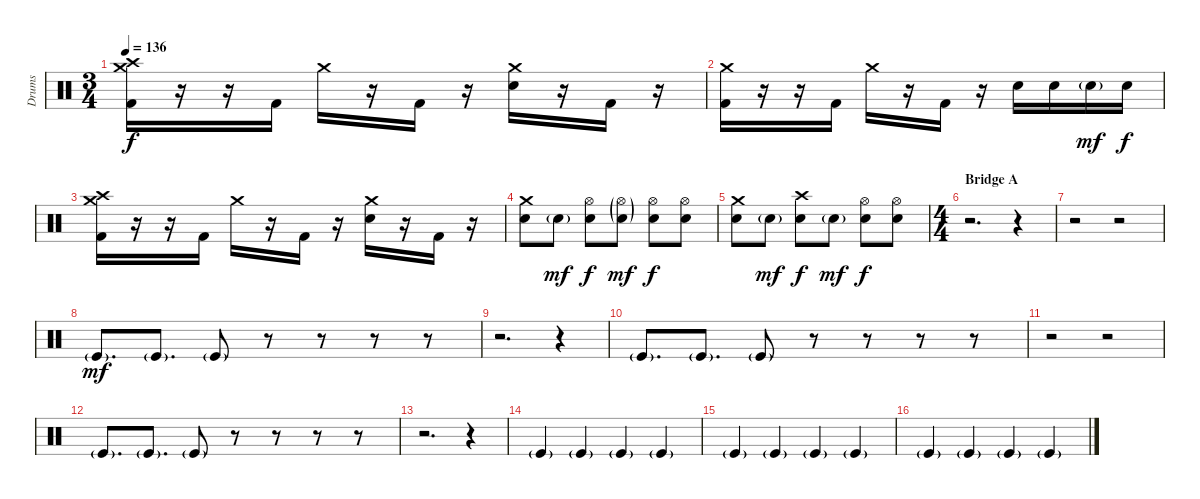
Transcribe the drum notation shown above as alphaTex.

\track ("Drums" "Drums") {instrument percussion}
\staff {score}
\articulation defaults
\ts (3 4)
\tempo 136
\clef neutral
\ks c
("Crash medium (hit)" "Crash high (hit)" "Kick (hit) 2").16{dy f} r.16 r.16 "Kick (hit) 2".16 "Crash medium (hit)".16 r.16 "Kick (hit) 2".16 r.16 ("Crash medium (hit)" "Electric Snare (hit)").16 r.16 "Kick (hit) 2".16 r.16 |
("Crash medium (hit)" "Kick (hit) 2").16 r.16 r.16 "Kick (hit) 2".16 "Crash medium (hit)".16 r.16 "Kick (hit) 2".16 r.16 "Electric Snare (hit)".16 "Electric Snare (hit)".16 "Snare (hit) 2"{g}.16{dy mf} "Electric Snare (hit)".16{dy f} |
("Crash medium (hit)" "Crash high (hit)" "Kick (hit) 2").16 r.16 r.16 "Kick (hit) 2".16 "Crash medium (hit)".16 r.16 "Kick (hit) 2".16 r.16 ("Crash medium (hit)" "Electric Snare (hit)").16 r.16 "Kick (hit) 2".16 r.16 |
("Crash medium (hit)" "Electric Snare (hit)").8 "Electric Snare (hit)"{g}.8{dy mf} ("Hi-Hat (open)" "Electric Snare (hit)").8{dy f} ("Hi-Hat (open)"{g} "Electric Snare (hit)"{g}).8{dy mf} ("Hi-Hat (open)" "Electric Snare (hit)").8{dy f} ("Hi-Hat (open)" "Electric Snare (hit)").8 |
("Crash medium (hit)" "Electric Snare (hit)").8 "Electric Snare (hit)"{g}.8{dy mf} ("Crash high (hit)" "Electric Snare (hit)").8{dy f} "Electric Snare (hit)"{g}.8{dy mf} ("Hi-Hat (open)" "Electric Snare (hit)").8{dy f} ("Hi-Hat (open)" "Electric Snare (hit)").8 |
\ts (4 4)
\section ("" "Bridge A")
r.2{d} r.4 |
r.2 r.2 |
"Kick (hit)"{g}.8{d dy mf} "Kick (hit)"{g}.8{d} "Kick (hit)"{g}.8 r.8 r.8 r.8 r.8 |
r.2{d} r.4 |
"Kick (hit)"{g}.8{d} "Kick (hit)"{g}.8{d} "Kick (hit)"{g}.8 r.8 r.8 r.8 r.8 |
r.2 r.2 |
"Kick (hit)"{g}.8{d} "Kick (hit)"{g}.8{d} "Kick (hit)"{g}.8 r.8 r.8 r.8 r.8 |
r.2{d} r.4 |
"Kick (hit)"{g}.4 "Kick (hit)"{g}.4 "Kick (hit)"{g}.4 "Kick (hit)"{g}.4 |
"Kick (hit)"{g}.4 "Kick (hit)"{g}.4 "Kick (hit)"{g}.4 "Kick (hit)"{g}.4 |
"Kick (hit)"{g}.4 "Kick (hit)"{g}.4 "Kick (hit)"{g}.4 "Kick (hit)"{g}.4
